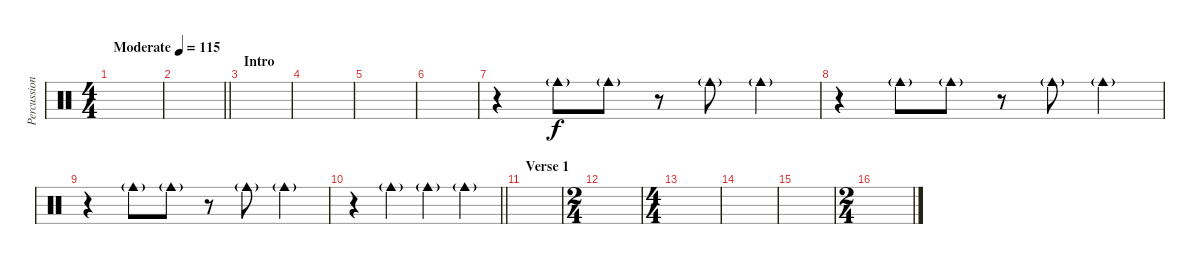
\track ("Percussioni" "Percussion") {instrument percussion}
\staff {score}
\articulation defaults
\ts (4 4)
\tempo (115 "Moderate")
\clef neutral
\ks c
|
\barLineRight lightlight
|
\section ("" "Intro")
|
|
|
|
r.4 "Cowbell medium (hit)"{g}.8 "Cowbell medium (hit)"{g}.8 r.8 "Cowbell medium (hit)"{g}.8 "Cowbell medium (hit)"{g}.4 |
r.4 "Cowbell medium (hit)"{g}.8 "Cowbell medium (hit)"{g}.8 r.8 "Cowbell medium (hit)"{g}.8 "Cowbell medium (hit)"{g}.4 |
r.4 "Cowbell medium (hit)"{g}.8 "Cowbell medium (hit)"{g}.8 r.8 "Cowbell medium (hit)"{g}.8 "Cowbell medium (hit)"{g}.4 |
\barLineRight lightlight
r.4 "Cowbell medium (hit)"{g}.4 "Cowbell medium (hit)"{g}.4 "Cowbell medium (hit)"{g}.4 |
\section ("" "Verse 1")
|
\ts (2 4)
|
\ts (4 4)
|
|
|
\ts (2 4)
